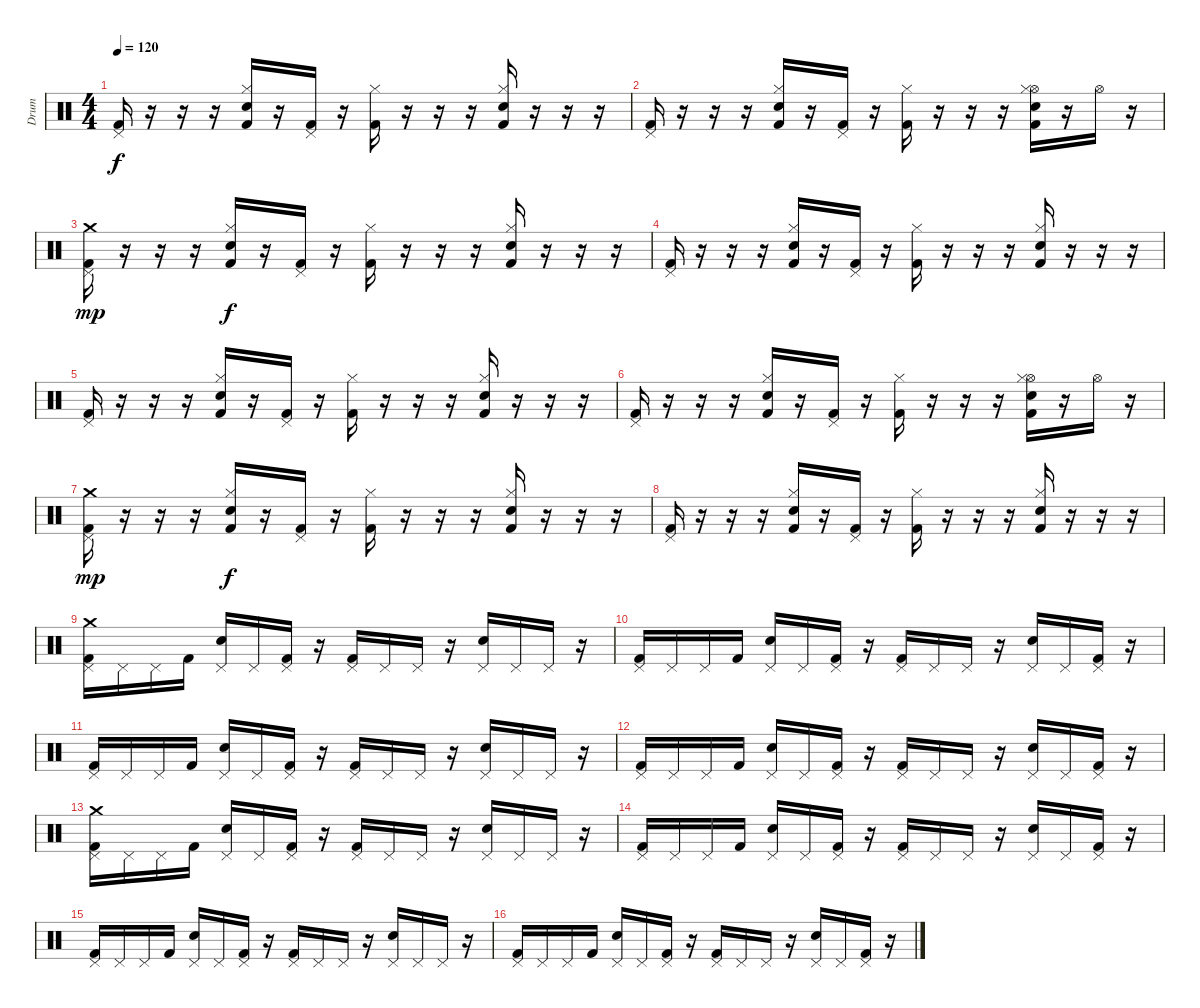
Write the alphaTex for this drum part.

\track ("Drum" "Drum") {instrument percussion}
\staff {score}
\articulation defaults
\ts (4 4)
\tempo 120
\clef neutral
\ks c
("Pedal Hi-Hat (hit)" "Kick (hit) 2").16{dy f} r.16 r.16 r.16 ("Hi-Hat (closed)" "Snare (hit) 2" "Kick (hit) 2").16 r.16 ("Pedal Hi-Hat (hit)" "Kick (hit) 2").16 r.16 ("Hi-Hat (closed)" "Kick (hit) 2").16 r.16 r.16 r.16 ("Hi-Hat (closed)" "Snare (hit) 2" "Kick (hit) 2").16 r.16 r.16 r.16 |
("Pedal Hi-Hat (hit)" "Kick (hit) 2").16 r.16 r.16 r.16 ("Hi-Hat (closed)" "Snare (hit) 2" "Kick (hit) 2").16 r.16 ("Pedal Hi-Hat (hit)" "Kick (hit) 2").16 r.16 ("Hi-Hat (closed)" "Kick (hit) 2").16 r.16 r.16 r.16 ("Hi-Hat (open)" "Hi-Hat (closed)" "Snare (hit) 2" "Kick (hit) 2").16 r.16 "Hi-Hat (open)".16 r.16 |
("Crash medium (hit)" "Pedal Hi-Hat (hit)" "Kick (hit) 2").16{dy mp} r.16 r.16 r.16 ("Hi-Hat (closed)" "Snare (hit) 2" "Kick (hit) 2").16{dy f} r.16 ("Pedal Hi-Hat (hit)" "Kick (hit) 2").16 r.16 ("Hi-Hat (closed)" "Kick (hit) 2").16 r.16 r.16 r.16 ("Hi-Hat (closed)" "Snare (hit) 2" "Kick (hit) 2").16 r.16 r.16 r.16 |
("Pedal Hi-Hat (hit)" "Kick (hit) 2").16 r.16 r.16 r.16 ("Hi-Hat (closed)" "Snare (hit) 2" "Kick (hit) 2").16 r.16 ("Pedal Hi-Hat (hit)" "Kick (hit) 2").16 r.16 ("Hi-Hat (closed)" "Kick (hit) 2").16 r.16 r.16 r.16 ("Hi-Hat (closed)" "Snare (hit) 2" "Kick (hit) 2").16 r.16 r.16 r.16 |
("Pedal Hi-Hat (hit)" "Kick (hit) 2").16 r.16 r.16 r.16 ("Hi-Hat (closed)" "Snare (hit) 2" "Kick (hit) 2").16 r.16 ("Pedal Hi-Hat (hit)" "Kick (hit) 2").16 r.16 ("Hi-Hat (closed)" "Kick (hit) 2").16 r.16 r.16 r.16 ("Hi-Hat (closed)" "Snare (hit) 2" "Kick (hit) 2").16 r.16 r.16 r.16 |
("Pedal Hi-Hat (hit)" "Kick (hit) 2").16 r.16 r.16 r.16 ("Hi-Hat (closed)" "Snare (hit) 2" "Kick (hit) 2").16 r.16 ("Pedal Hi-Hat (hit)" "Kick (hit) 2").16 r.16 ("Hi-Hat (closed)" "Kick (hit) 2").16 r.16 r.16 r.16 ("Hi-Hat (open)" "Hi-Hat (closed)" "Snare (hit) 2" "Kick (hit) 2").16 r.16 "Hi-Hat (open)".16 r.16 |
("Crash medium (hit)" "Pedal Hi-Hat (hit)" "Kick (hit) 2").16{dy mp} r.16 r.16 r.16 ("Hi-Hat (closed)" "Snare (hit) 2" "Kick (hit) 2").16{dy f} r.16 ("Pedal Hi-Hat (hit)" "Kick (hit) 2").16 r.16 ("Hi-Hat (closed)" "Kick (hit) 2").16 r.16 r.16 r.16 ("Hi-Hat (closed)" "Snare (hit) 2" "Kick (hit) 2").16 r.16 r.16 r.16 |
("Pedal Hi-Hat (hit)" "Kick (hit) 2").16 r.16 r.16 r.16 ("Hi-Hat (closed)" "Snare (hit) 2" "Kick (hit) 2").16 r.16 ("Pedal Hi-Hat (hit)" "Kick (hit) 2").16 r.16 ("Hi-Hat (closed)" "Kick (hit) 2").16 r.16 r.16 r.16 ("Hi-Hat (closed)" "Snare (hit) 2" "Kick (hit) 2").16 r.16 r.16 r.16 |
("Crash medium (hit)" "Pedal Hi-Hat (hit)" "Kick (hit) 2").16 "Pedal Hi-Hat (hit)".16 "Pedal Hi-Hat (hit)".16 "Kick (hit) 2".16 ("Pedal Hi-Hat (hit)" "Snare (hit) 2").16 "Pedal Hi-Hat (hit)".16 ("Pedal Hi-Hat (hit)" "Kick (hit) 2").16 r.16 ("Pedal Hi-Hat (hit)" "Kick (hit) 2").16 "Pedal Hi-Hat (hit)".16 "Pedal Hi-Hat (hit)".16 r.16 ("Pedal Hi-Hat (hit)" "Snare (hit) 2").16 "Pedal Hi-Hat (hit)".16 "Pedal Hi-Hat (hit)".16 r.16 |
("Pedal Hi-Hat (hit)" "Kick (hit) 2").16 "Pedal Hi-Hat (hit)".16 "Pedal Hi-Hat (hit)".16 "Kick (hit) 2".16 ("Pedal Hi-Hat (hit)" "Snare (hit) 2").16 "Pedal Hi-Hat (hit)".16 ("Pedal Hi-Hat (hit)" "Kick (hit) 2").16 r.16 ("Pedal Hi-Hat (hit)" "Kick (hit) 2").16 "Pedal Hi-Hat (hit)".16 "Pedal Hi-Hat (hit)".16 r.16 ("Pedal Hi-Hat (hit)" "Snare (hit) 2").16 "Pedal Hi-Hat (hit)".16 ("Pedal Hi-Hat (hit)" "Kick (hit) 2").16 r.16 |
("Pedal Hi-Hat (hit)" "Kick (hit) 2").16 "Pedal Hi-Hat (hit)".16 "Pedal Hi-Hat (hit)".16 "Kick (hit) 2".16 ("Pedal Hi-Hat (hit)" "Snare (hit) 2").16 "Pedal Hi-Hat (hit)".16 ("Pedal Hi-Hat (hit)" "Kick (hit) 2").16 r.16 ("Pedal Hi-Hat (hit)" "Kick (hit) 2").16 "Pedal Hi-Hat (hit)".16 "Pedal Hi-Hat (hit)".16 r.16 ("Pedal Hi-Hat (hit)" "Snare (hit) 2").16 "Pedal Hi-Hat (hit)".16 "Pedal Hi-Hat (hit)".16 r.16 |
("Pedal Hi-Hat (hit)" "Kick (hit) 2").16 "Pedal Hi-Hat (hit)".16 "Pedal Hi-Hat (hit)".16 "Kick (hit) 2".16 ("Pedal Hi-Hat (hit)" "Snare (hit) 2").16 "Pedal Hi-Hat (hit)".16 ("Pedal Hi-Hat (hit)" "Kick (hit) 2").16 r.16 ("Pedal Hi-Hat (hit)" "Kick (hit) 2").16 "Pedal Hi-Hat (hit)".16 "Pedal Hi-Hat (hit)".16 r.16 ("Pedal Hi-Hat (hit)" "Snare (hit) 2").16 "Pedal Hi-Hat (hit)".16 ("Pedal Hi-Hat (hit)" "Kick (hit) 2").16 r.16 |
("Crash medium (hit)" "Pedal Hi-Hat (hit)" "Kick (hit) 2").16 "Pedal Hi-Hat (hit)".16 "Pedal Hi-Hat (hit)".16 "Kick (hit) 2".16 ("Pedal Hi-Hat (hit)" "Snare (hit) 2").16 "Pedal Hi-Hat (hit)".16 ("Pedal Hi-Hat (hit)" "Kick (hit) 2").16 r.16 ("Pedal Hi-Hat (hit)" "Kick (hit) 2").16 "Pedal Hi-Hat (hit)".16 "Pedal Hi-Hat (hit)".16 r.16 ("Pedal Hi-Hat (hit)" "Snare (hit) 2").16 "Pedal Hi-Hat (hit)".16 "Pedal Hi-Hat (hit)".16 r.16 |
("Pedal Hi-Hat (hit)" "Kick (hit) 2").16 "Pedal Hi-Hat (hit)".16 "Pedal Hi-Hat (hit)".16 "Kick (hit) 2".16 ("Pedal Hi-Hat (hit)" "Snare (hit) 2").16 "Pedal Hi-Hat (hit)".16 ("Pedal Hi-Hat (hit)" "Kick (hit) 2").16 r.16 ("Pedal Hi-Hat (hit)" "Kick (hit) 2").16 "Pedal Hi-Hat (hit)".16 "Pedal Hi-Hat (hit)".16 r.16 ("Pedal Hi-Hat (hit)" "Snare (hit) 2").16 "Pedal Hi-Hat (hit)".16 ("Pedal Hi-Hat (hit)" "Kick (hit) 2").16 r.16 |
("Pedal Hi-Hat (hit)" "Kick (hit) 2").16 "Pedal Hi-Hat (hit)".16 "Pedal Hi-Hat (hit)".16 "Kick (hit) 2".16 ("Pedal Hi-Hat (hit)" "Snare (hit) 2").16 "Pedal Hi-Hat (hit)".16 ("Pedal Hi-Hat (hit)" "Kick (hit) 2").16 r.16 ("Pedal Hi-Hat (hit)" "Kick (hit) 2").16 "Pedal Hi-Hat (hit)".16 "Pedal Hi-Hat (hit)".16 r.16 ("Pedal Hi-Hat (hit)" "Snare (hit) 2").16 "Pedal Hi-Hat (hit)".16 "Pedal Hi-Hat (hit)".16 r.16 |
("Pedal Hi-Hat (hit)" "Kick (hit) 2").16 "Pedal Hi-Hat (hit)".16 "Pedal Hi-Hat (hit)".16 "Kick (hit) 2".16 ("Pedal Hi-Hat (hit)" "Snare (hit) 2").16 "Pedal Hi-Hat (hit)".16 ("Pedal Hi-Hat (hit)" "Kick (hit) 2").16 r.16 ("Pedal Hi-Hat (hit)" "Kick (hit) 2").16 "Pedal Hi-Hat (hit)".16 "Pedal Hi-Hat (hit)".16 r.16 ("Pedal Hi-Hat (hit)" "Snare (hit) 2").16 "Pedal Hi-Hat (hit)".16 ("Pedal Hi-Hat (hit)" "Kick (hit) 2").16 r.16
